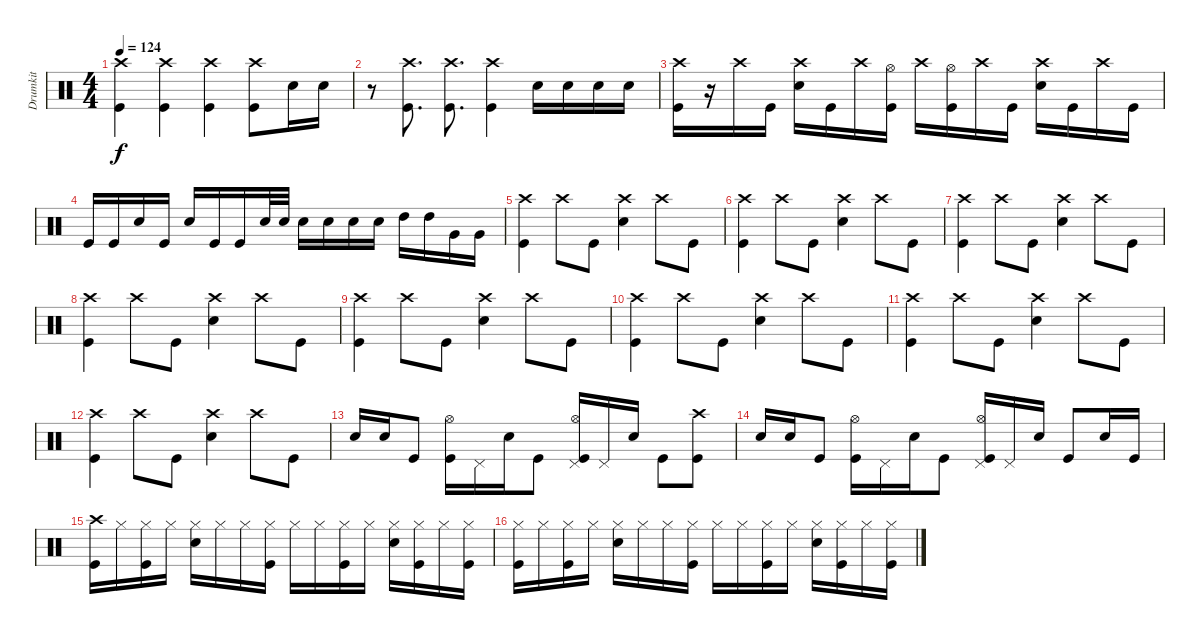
\track ("Drumkit" "Drumkit") {instrument percussion}
\staff {score}
\articulation defaults
\ts (4 4)
\tempo 124
\clef neutral
\ks c
("Crash high (hit)" "Kick (hit)").4{dy f} ("Crash high (hit)" "Kick (hit)").4 ("Crash high (hit)" "Kick (hit)").4 ("Crash high (hit)" "Kick (hit)").8 "Snare (hit) 2".16 "Snare (hit) 2".16 |
r.8 ("Crash high (hit)" "Kick (hit)").8{d} ("Crash high (hit)" "Kick (hit)").8{d} ("Crash high (hit)" "Kick (hit)").4 "Snare (hit) 2".16 "Snare (hit) 2".16 "Snare (hit) 2".16 "Snare (hit) 2".16 |
("Crash high (hit)" "Kick (hit)").16 r.16 "Crash high (hit)".16 "Kick (hit)".16 ("Crash high (hit)" "Snare (hit) 2").16 "Kick (hit)".16 "Crash high (hit)".16 ("Kick (hit)" "Hi-Hat (open)").16 "Crash high (hit)".16 ("Kick (hit)" "Hi-Hat (open)").16 "Crash high (hit)".16 "Kick (hit)".16 ("Crash high (hit)" "Snare (hit) 2").16 "Kick (hit)".16 "Crash high (hit)".16 "Kick (hit)".16 |
"Kick (hit)".16 "Kick (hit)".16 "Snare (hit) 2".16 "Kick (hit)".16 "Snare (hit) 2".16 "Kick (hit)".16 "Kick (hit)".16 "Snare (hit) 2".32 "Snare (hit) 2".32 "Snare (hit) 2".16 "Snare (hit) 2".16 "Snare (hit) 2".16 "Snare (hit) 2".16 "High Tom (hit)".16 "High Tom (hit)".16 "Very Low Tom (hit)".16 "Very Low Tom (hit)".16 |
("Kick (hit)" "Crash high (hit)").4 "Crash high (hit)".8 "Kick (hit)".8 ("Snare (hit) 2" "Crash high (hit)").4 "Crash high (hit)".8 "Kick (hit)".8 |
("Kick (hit)" "Crash high (hit)").4 "Crash high (hit)".8 "Kick (hit)".8 ("Snare (hit) 2" "Crash high (hit)").4 "Crash high (hit)".8 "Kick (hit)".8 |
("Kick (hit)" "Crash high (hit)").4 "Crash high (hit)".8 "Kick (hit)".8 ("Snare (hit) 2" "Crash high (hit)").4 "Crash high (hit)".8 "Kick (hit)".8 |
("Kick (hit)" "Crash high (hit)").4 "Crash high (hit)".8 "Kick (hit)".8 ("Snare (hit) 2" "Crash high (hit)").4 "Crash high (hit)".8 "Kick (hit)".8 |
("Kick (hit)" "Crash high (hit)").4 "Crash high (hit)".8 "Kick (hit)".8 ("Snare (hit) 2" "Crash high (hit)").4 "Crash high (hit)".8 "Kick (hit)".8 |
("Kick (hit)" "Crash high (hit)").4 "Crash high (hit)".8 "Kick (hit)".8 ("Snare (hit) 2" "Crash high (hit)").4 "Crash high (hit)".8 "Kick (hit)".8 |
("Kick (hit)" "Crash high (hit)").4 "Crash high (hit)".8 "Kick (hit)".8 ("Snare (hit) 2" "Crash high (hit)").4 "Crash high (hit)".8 "Kick (hit)".8 |
("Kick (hit)" "Crash high (hit)").4 "Crash high (hit)".8 "Kick (hit)".8 ("Snare (hit) 2" "Crash high (hit)").4 "Crash high (hit)".8 "Kick (hit)".8 |
"Snare (hit) 2".16 "Snare (hit) 2".16 "Kick (hit)".8 ("Kick (hit)" "Hi-Hat (open)").16 "Pedal Hi-Hat (hit)".16 "Snare (hit) 2".16 "Kick (hit)".8 ("Kick (hit)" "Pedal Hi-Hat (hit)" "Hi-Hat (open)").16 "Pedal Hi-Hat (hit)".16 "Snare (hit) 2".16 "Kick (hit)".8 ("Kick (hit)" "Crash high (hit)").8 |
"Snare (hit) 2".16 "Snare (hit) 2".16 "Kick (hit)".8 ("Kick (hit)" "Hi-Hat (open)").16 "Pedal Hi-Hat (hit)".16 "Snare (hit) 2".16 "Kick (hit)".8 ("Kick (hit)" "Pedal Hi-Hat (hit)" "Hi-Hat (open)").16 "Pedal Hi-Hat (hit)".16 "Snare (hit) 2".16 "Kick (hit)".8 "Snare (hit) 2".16 "Kick (hit)".16 |
("Kick (hit)" "Crash high (hit)").16 "Hi-Hat (closed)".16 ("Hi-Hat (closed)" "Kick (hit)").16 "Hi-Hat (closed)".16 ("Hi-Hat (closed)" "Snare (hit) 2").16 "Hi-Hat (closed)".16 "Hi-Hat (closed)".16 ("Hi-Hat (closed)" "Kick (hit)").16 "Hi-Hat (closed)".16 "Hi-Hat (closed)".16 ("Hi-Hat (closed)" "Kick (hit)").16 "Hi-Hat (closed)".16 ("Hi-Hat (closed)" "Snare (hit) 2").16 ("Hi-Hat (closed)" "Kick (hit)").16 "Hi-Hat (closed)".16 ("Hi-Hat (closed)" "Kick (hit)").16 |
("Kick (hit)" "Hi-Hat (closed)").16 "Hi-Hat (closed)".16 ("Hi-Hat (closed)" "Kick (hit)").16 "Hi-Hat (closed)".16 ("Hi-Hat (closed)" "Snare (hit) 2").16 "Hi-Hat (closed)".16 "Hi-Hat (closed)".16 ("Hi-Hat (closed)" "Kick (hit)").16 "Hi-Hat (closed)".16 "Hi-Hat (closed)".16 ("Hi-Hat (closed)" "Kick (hit)").16 "Hi-Hat (closed)".16 ("Hi-Hat (closed)" "Snare (hit) 2").16 ("Hi-Hat (closed)" "Kick (hit)").16 "Hi-Hat (closed)".16 ("Hi-Hat (closed)" "Kick (hit)").16
